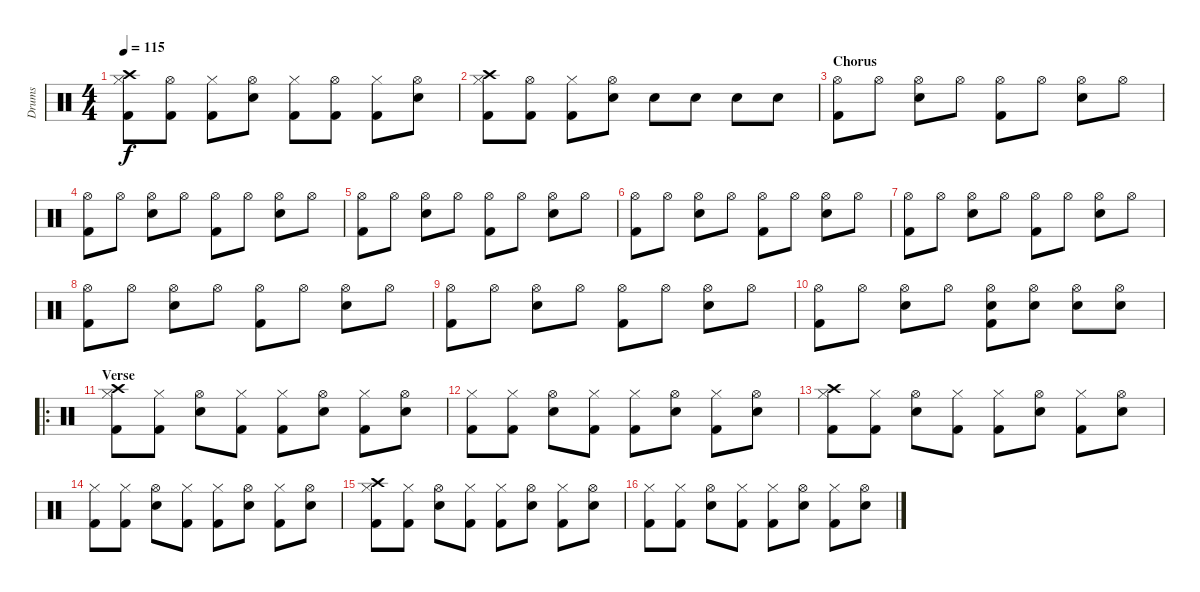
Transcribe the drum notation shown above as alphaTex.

\track ("Drums" "Drums") {instrument percussion}
\staff {score}
\articulation defaults
\ts (4 4)
\tempo 115
\clef neutral
\ks c
("Crash high (hit)" "Hi-Hat (closed)" "Kick (hit) 2").8{dy f} ("Hi-Hat (open)" "Kick (hit) 2").8 ("Hi-Hat (closed)" "Kick (hit) 2").8 ("Hi-Hat (open)" "Snare (hit) 2").8 ("Hi-Hat (closed)" "Kick (hit) 2").8 ("Hi-Hat (open)" "Kick (hit) 2").8 ("Hi-Hat (closed)" "Kick (hit) 2").8 ("Hi-Hat (open)" "Snare (hit) 2").8 |
("Crash high (hit)" "Hi-Hat (closed)" "Kick (hit) 2").8 ("Hi-Hat (open)" "Kick (hit) 2").8 ("Hi-Hat (closed)" "Kick (hit) 2").8 ("Hi-Hat (open)" "Snare (hit) 2").8 "Snare (hit) 2".8 "Electric Snare (hit)".8 "Snare (hit) 2".8 "Electric Snare (hit)".8 |
\section ("" "Chorus")
("Hi-Hat (open)" "Kick (hit) 2").8 "Hi-Hat (open)".8 ("Hi-Hat (open)" "Snare (hit) 2").8 "Hi-Hat (open)".8 ("Hi-Hat (open)" "Kick (hit) 2").8 "Hi-Hat (open)".8 ("Hi-Hat (open)" "Snare (hit) 2").8 "Hi-Hat (open)".8 |
("Hi-Hat (open)" "Kick (hit) 2").8 "Hi-Hat (open)".8 ("Hi-Hat (open)" "Snare (hit) 2").8 "Hi-Hat (open)".8 ("Hi-Hat (open)" "Kick (hit) 2").8 "Hi-Hat (open)".8 ("Hi-Hat (open)" "Snare (hit) 2").8 "Hi-Hat (open)".8 |
("Hi-Hat (open)" "Kick (hit) 2").8 "Hi-Hat (open)".8 ("Hi-Hat (open)" "Snare (hit) 2").8 "Hi-Hat (open)".8 ("Hi-Hat (open)" "Kick (hit) 2").8 "Hi-Hat (open)".8 ("Hi-Hat (open)" "Snare (hit) 2").8 "Hi-Hat (open)".8 |
("Hi-Hat (open)" "Kick (hit) 2").8 "Hi-Hat (open)".8 ("Hi-Hat (open)" "Snare (hit) 2").8 "Hi-Hat (open)".8 ("Hi-Hat (open)" "Kick (hit) 2").8 "Hi-Hat (open)".8 ("Hi-Hat (open)" "Snare (hit) 2").8 "Hi-Hat (open)".8 |
("Hi-Hat (open)" "Kick (hit) 2").8 "Hi-Hat (open)".8 ("Hi-Hat (open)" "Snare (hit) 2").8 "Hi-Hat (open)".8 ("Hi-Hat (open)" "Kick (hit) 2").8 "Hi-Hat (open)".8 ("Hi-Hat (open)" "Snare (hit) 2").8 "Hi-Hat (open)".8 |
("Hi-Hat (open)" "Kick (hit) 2").8 "Hi-Hat (open)".8 ("Hi-Hat (open)" "Snare (hit) 2").8 "Hi-Hat (open)".8 ("Hi-Hat (open)" "Kick (hit) 2").8 "Hi-Hat (open)".8 ("Hi-Hat (open)" "Snare (hit) 2").8 "Hi-Hat (open)".8 |
("Hi-Hat (open)" "Kick (hit) 2").8 "Hi-Hat (open)".8 ("Hi-Hat (open)" "Snare (hit) 2").8 "Hi-Hat (open)".8 ("Hi-Hat (open)" "Kick (hit) 2").8 "Hi-Hat (open)".8 ("Hi-Hat (open)" "Snare (hit) 2").8 "Hi-Hat (open)".8 |
("Hi-Hat (open)" "Kick (hit) 2").8 "Hi-Hat (open)".8 ("Hi-Hat (open)" "Snare (hit) 2").8 "Hi-Hat (open)".8 ("Hi-Hat (open)" "Snare (hit) 2" "Kick (hit) 2").8 ("Hi-Hat (open)" "Snare (hit) 2").8 ("Hi-Hat (open)" "Snare (hit) 2").8 ("Hi-Hat (open)" "Snare (hit) 2").8 |
\ro
\section ("" "Verse")
("Hi-Hat (closed)" "Crash high (hit)" "Kick (hit) 2").8 ("Hi-Hat (closed)" "Kick (hit) 2").8 ("Hi-Hat (open)" "Snare (hit) 2").8 ("Hi-Hat (closed)" "Kick (hit) 2").8 ("Hi-Hat (closed)" "Kick (hit) 2").8 ("Hi-Hat (open)" "Snare (hit) 2").8 ("Hi-Hat (closed)" "Kick (hit) 2").8 ("Hi-Hat (open)" "Snare (hit) 2").8 |
("Hi-Hat (closed)" "Kick (hit) 2").8 ("Hi-Hat (closed)" "Kick (hit) 2").8 ("Hi-Hat (open)" "Snare (hit) 2").8 ("Hi-Hat (closed)" "Kick (hit) 2").8 ("Hi-Hat (closed)" "Kick (hit) 2").8 ("Hi-Hat (open)" "Snare (hit) 2").8 ("Hi-Hat (closed)" "Kick (hit) 2").8 ("Hi-Hat (open)" "Snare (hit) 2").8 |
("Hi-Hat (closed)" "Crash high (hit)" "Kick (hit) 2").8 ("Hi-Hat (closed)" "Kick (hit) 2").8 ("Hi-Hat (open)" "Snare (hit) 2").8 ("Hi-Hat (closed)" "Kick (hit) 2").8 ("Hi-Hat (closed)" "Kick (hit) 2").8 ("Hi-Hat (open)" "Snare (hit) 2").8 ("Hi-Hat (closed)" "Kick (hit) 2").8 ("Hi-Hat (open)" "Snare (hit) 2").8 |
("Hi-Hat (closed)" "Kick (hit) 2").8 ("Hi-Hat (closed)" "Kick (hit) 2").8 ("Hi-Hat (open)" "Snare (hit) 2").8 ("Hi-Hat (closed)" "Kick (hit) 2").8 ("Hi-Hat (closed)" "Kick (hit) 2").8 ("Hi-Hat (open)" "Snare (hit) 2").8 ("Hi-Hat (closed)" "Kick (hit) 2").8 ("Hi-Hat (open)" "Snare (hit) 2").8 |
("Hi-Hat (closed)" "Crash high (hit)" "Kick (hit) 2").8 ("Hi-Hat (closed)" "Kick (hit) 2").8 ("Hi-Hat (open)" "Snare (hit) 2").8 ("Hi-Hat (closed)" "Kick (hit) 2").8 ("Hi-Hat (closed)" "Kick (hit) 2").8 ("Hi-Hat (open)" "Snare (hit) 2").8 ("Hi-Hat (closed)" "Kick (hit) 2").8 ("Hi-Hat (open)" "Snare (hit) 2").8 |
("Hi-Hat (closed)" "Kick (hit) 2").8 ("Hi-Hat (closed)" "Kick (hit) 2").8 ("Hi-Hat (open)" "Snare (hit) 2").8 ("Hi-Hat (closed)" "Kick (hit) 2").8 ("Hi-Hat (closed)" "Kick (hit) 2").8 ("Hi-Hat (open)" "Snare (hit) 2").8 ("Hi-Hat (closed)" "Kick (hit) 2").8 ("Hi-Hat (open)" "Snare (hit) 2").8
